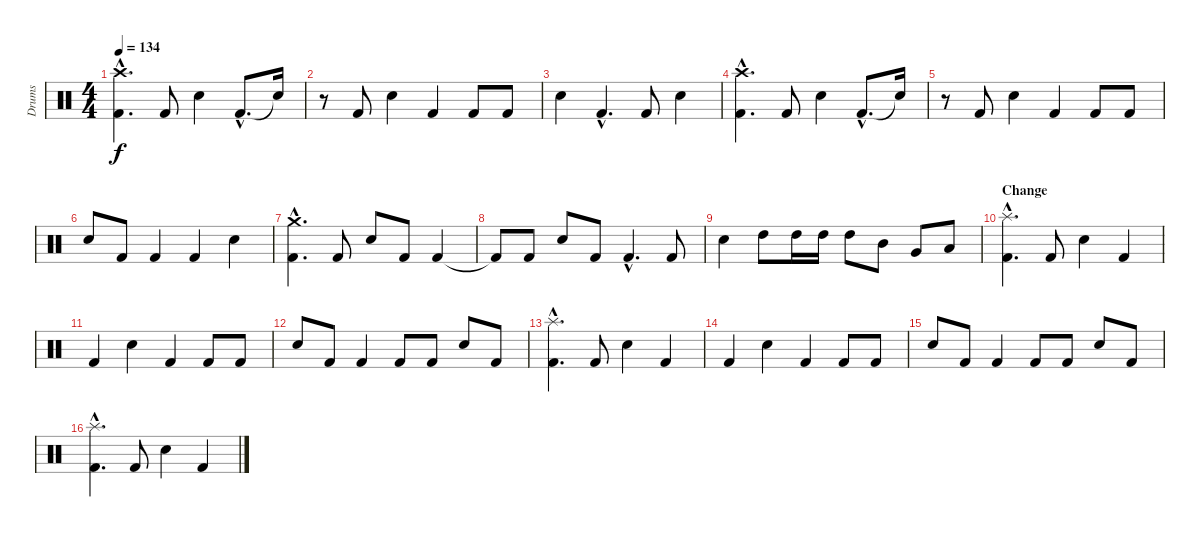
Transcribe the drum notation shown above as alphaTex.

\track ("Drums" "Drums") {instrument percussion}
\staff {score}
\articulation defaults
\ts (4 4)
\tempo 134
\clef neutral
\ks c
("Kick (hit) 2"{hac} "Crash high (hit)"{hac}).4{d dy f} "Kick (hit) 2".8 "Snare (hit) 2".4 "Kick (hit) 2"{hac}.8{d} "Snare (hit)"{t}.16 |
r.8 "Kick (hit) 2".8 "Snare (hit) 2".4 "Kick (hit) 2".4 "Kick (hit) 2".8 "Kick (hit) 2".8 |
"Snare (hit) 2".4 "Kick (hit) 2"{hac}.4{d} "Kick (hit) 2".8 "Snare (hit) 2".4 |
("Kick (hit) 2"{hac} "Crash high (hit)"{hac}).4{d} "Kick (hit) 2".8 "Snare (hit) 2".4 "Kick (hit) 2"{hac}.8{d} "Snare (hit)"{t}.16 |
r.8 "Kick (hit) 2".8 "Snare (hit) 2".4 "Kick (hit) 2".4 "Kick (hit) 2".8 "Kick (hit) 2".8 |
"Snare (hit) 2".8 "Kick (hit) 2".8 "Kick (hit) 2".4 "Kick (hit) 2".4 "Snare (hit) 2".4 |
("Kick (hit) 2"{hac} "Crash medium (hit)"{hac}).4{d} "Kick (hit) 2".8 "Snare (hit) 2".8 "Kick (hit) 2".8 "Kick (hit) 2".4 |
"Kick (hit) 2"{t}.8 "Kick (hit) 2".8 "Snare (hit) 2".8 "Kick (hit) 2".8 "Kick (hit) 2"{hac}.4{d} "Kick (hit) 2".8 |
"Snare (hit) 2".4 "High Tom (hit)".8 "High Tom (hit)".16 "High Tom (hit)".16 "High Tom (hit)".8 "Mid Tom (hit)".8 "Very Low Tom (hit)".8 "Low Floor Tom (hit)".8 |
\section ("" "Change")
("Kick (hit) 2"{hac} "Splash (hit)"{hac}).4{d} "Kick (hit) 2".8 "Snare (hit) 2".4 "Kick (hit) 2".4 |
"Kick (hit) 2".4 "Snare (hit) 2".4 "Kick (hit) 2".4 "Kick (hit) 2".8 "Kick (hit) 2".8 |
"Snare (hit) 2".8 "Kick (hit) 2".8 "Kick (hit) 2".4 "Kick (hit) 2".8 "Kick (hit) 2".8 "Snare (hit) 2".8 "Kick (hit) 2".8 |
("Kick (hit) 2"{hac} "Splash (hit)"{hac}).4{d} "Kick (hit) 2".8 "Snare (hit) 2".4 "Kick (hit) 2".4 |
"Kick (hit) 2".4 "Snare (hit) 2".4 "Kick (hit) 2".4 "Kick (hit) 2".8 "Kick (hit) 2".8 |
"Snare (hit) 2".8 "Kick (hit) 2".8 "Kick (hit) 2".4 "Kick (hit) 2".8 "Kick (hit) 2".8 "Snare (hit) 2".8 "Kick (hit) 2".8 |
("Kick (hit) 2"{hac} "Splash (hit)"{hac}).4{d} "Kick (hit) 2".8 "Snare (hit) 2".4 "Kick (hit) 2".4
